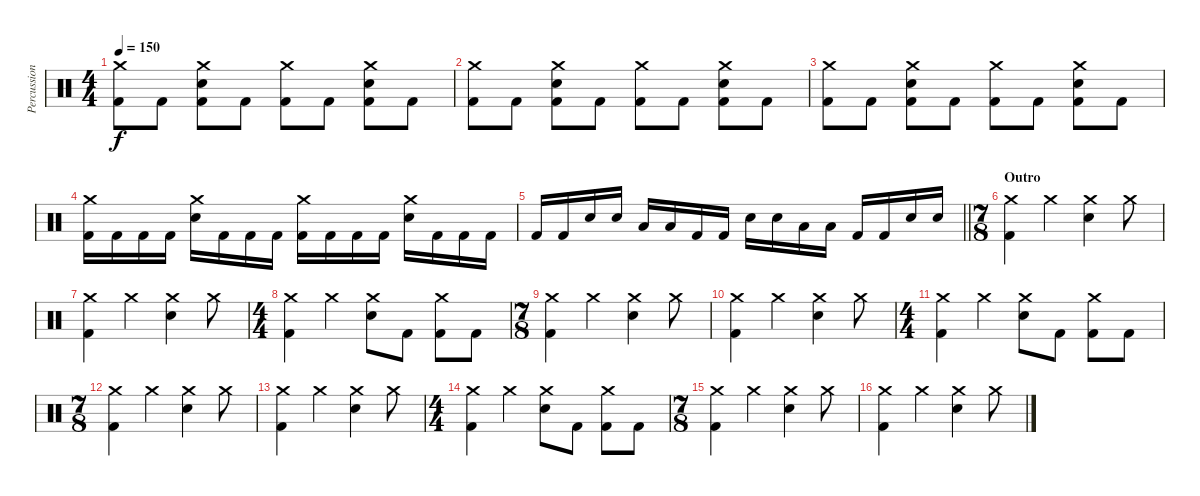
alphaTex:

\track ("Percussion" "Percussion") {instrument percussion}
\staff {score}
\articulation defaults
\ts (4 4)
\tempo 150
\clef neutral
\ks c
("Crash medium (hit)" "Kick (hit) 2").8{dy f} "Kick (hit) 2".8 ("Crash medium (hit)" "Electric Snare (hit)" "Kick (hit) 2").8 "Kick (hit) 2".8 ("Crash medium (hit)" "Kick (hit) 2").8 "Kick (hit) 2".8 ("Crash medium (hit)" "Electric Snare (hit)" "Kick (hit) 2").8 "Kick (hit) 2".8 |
("Crash medium (hit)" "Kick (hit) 2").8 "Kick (hit) 2".8 ("Crash medium (hit)" "Electric Snare (hit)" "Kick (hit) 2").8 "Kick (hit) 2".8 ("Crash medium (hit)" "Kick (hit) 2").8 "Kick (hit) 2".8 ("Crash medium (hit)" "Electric Snare (hit)" "Kick (hit) 2").8 "Kick (hit) 2".8 |
("Crash medium (hit)" "Kick (hit) 2").8 "Kick (hit) 2".8 ("Crash medium (hit)" "Electric Snare (hit)" "Kick (hit) 2").8 "Kick (hit) 2".8 ("Crash medium (hit)" "Kick (hit) 2").8 "Kick (hit) 2".8 ("Crash medium (hit)" "Electric Snare (hit)" "Kick (hit) 2").8 "Kick (hit) 2".8 |
("Crash medium (hit)" "Kick (hit) 2").16 "Kick (hit) 2".16 "Kick (hit) 2".16 "Kick (hit) 2".16 ("Crash medium (hit)" "Electric Snare (hit)").16 "Kick (hit) 2".16 "Kick (hit) 2".16 "Kick (hit) 2".16 ("Crash medium (hit)" "Kick (hit) 2").16 "Kick (hit) 2".16 "Kick (hit) 2".16 "Kick (hit) 2".16 ("Crash medium (hit)" "Electric Snare (hit)").16 "Kick (hit) 2".16 "Kick (hit) 2".16 "Kick (hit) 2".16 |
\barLineRight lightlight "Kick (hit) 2".16 "Kick (hit) 2".16 "Electric Snare (hit)".16 "Electric Snare (hit)".16 "Low Tom (hit)".16 "Low Tom (hit)".16 "Kick (hit) 2".16 "Kick (hit) 2".16 "Electric Snare (hit)".16 "Electric Snare (hit)".16 "Low Tom (hit)".16 "Low Tom (hit)".16 "Kick (hit) 2".16 "Kick (hit) 2".16 "Electric Snare (hit)".16 "Electric Snare (hit)".16
|
\ts (7 8)
\section ("" "Outro")
("Crash medium (hit)" "Kick (hit) 2").4 "Crash medium (hit)".4 ("Crash medium (hit)" "Electric Snare (hit)").4 "Crash medium (hit)".8 |
("Crash medium (hit)" "Kick (hit) 2").4 "Crash medium (hit)".4 ("Crash medium (hit)" "Electric Snare (hit)").4 "Crash medium (hit)".8 |
\ts (4 4)
("Crash medium (hit)" "Kick (hit) 2").4 "Crash medium (hit)".4 ("Crash medium (hit)" "Electric Snare (hit)").8 "Kick (hit) 2".8 ("Crash medium (hit)" "Kick (hit) 2").8 "Kick (hit) 2".8 |
\ts (7 8)
("Crash medium (hit)" "Kick (hit) 2").4 "Crash medium (hit)".4 ("Crash medium (hit)" "Electric Snare (hit)").4 "Crash medium (hit)".8 |
("Crash medium (hit)" "Kick (hit) 2").4 "Crash medium (hit)".4 ("Crash medium (hit)" "Electric Snare (hit)").4 "Crash medium (hit)".8 |
\ts (4 4)
("Crash medium (hit)" "Kick (hit) 2").4 "Crash medium (hit)".4 ("Crash medium (hit)" "Electric Snare (hit)").8 "Kick (hit) 2".8 ("Crash medium (hit)" "Kick (hit) 2").8 "Kick (hit) 2".8 |
\ts (7 8)
("Crash medium (hit)" "Kick (hit) 2").4 "Crash medium (hit)".4 ("Crash medium (hit)" "Electric Snare (hit)").4 "Crash medium (hit)".8 |
("Crash medium (hit)" "Kick (hit) 2").4 "Crash medium (hit)".4 ("Crash medium (hit)" "Electric Snare (hit)").4 "Crash medium (hit)".8 |
\ts (4 4)
("Crash medium (hit)" "Kick (hit) 2").4 "Crash medium (hit)".4 ("Crash medium (hit)" "Electric Snare (hit)").8 "Kick (hit) 2".8 ("Crash medium (hit)" "Kick (hit) 2").8 "Kick (hit) 2".8 |
\ts (7 8)
("Crash medium (hit)" "Kick (hit) 2").4 "Crash medium (hit)".4 ("Crash medium (hit)" "Electric Snare (hit)").4 "Crash medium (hit)".8 |
("Crash medium (hit)" "Kick (hit) 2").4 "Crash medium (hit)".4 ("Crash medium (hit)" "Electric Snare (hit)").4 "Crash medium (hit)".8
